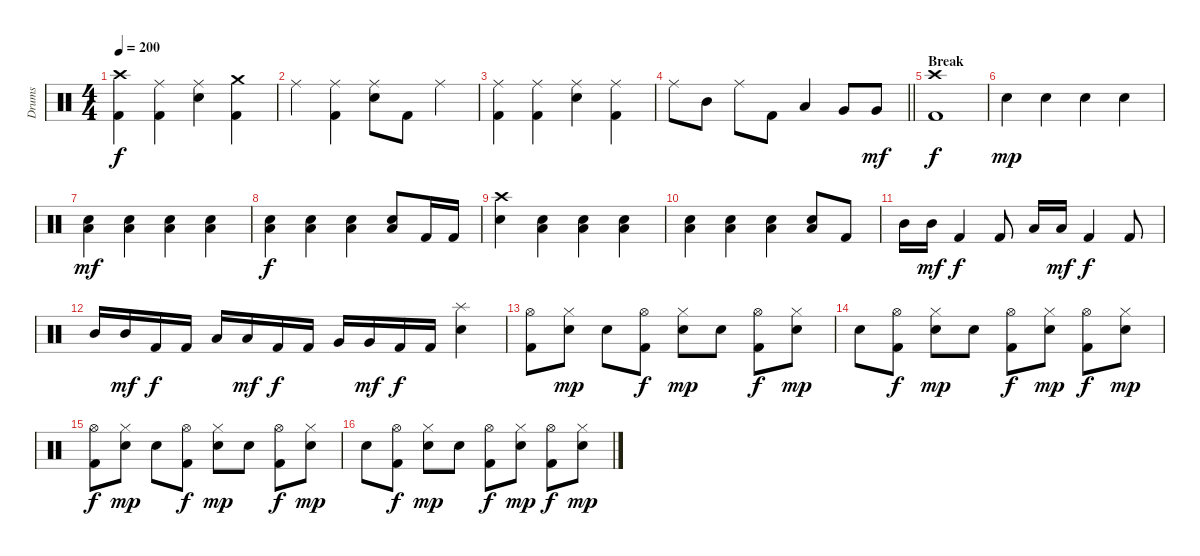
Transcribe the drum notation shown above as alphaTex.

\track ("Drums" "Drums") {instrument percussion}
\staff {score}
\articulation defaults
\ts (4 4)
\tempo 200
\clef neutral
\ks c
("Kick (hit) 2" "Crash high (hit)").4{dy f} ("Kick (hit) 2" "Ride (middle)").4 ("Ride (middle)" "Electric Snare (hit)").4 ("Kick (hit) 2" "Crash medium (hit)").4 |
"Ride (middle)".4 ("Kick (hit) 2" "Ride (middle)").4 ("Ride (middle)" "Electric Snare (hit)").8 "Kick (hit) 2".8 "Ride (middle)".4 |
("Kick (hit) 2" "Ride (middle)").4 ("Kick (hit) 2" "Ride (middle)").4 ("Ride (middle)" "Electric Snare (hit)").4 ("Kick (hit) 2" "Ride (middle)").4 |
\barLineRight lightlight "Ride (middle)".8 "Mid Tom (hit)".8 "Ride (middle)".8 "Kick (hit) 2".8 "Low Tom (hit)".4 "Very Low Tom (hit)".8 "Very Low Tom (hit)".8{dy mf}
|
\section ("" "Break")
("Kick (hit) 2" "Crash high (hit)").1{dy f} |
"Electric Snare (hit)".4{dy mp} "Electric Snare (hit)".4 "Electric Snare (hit)".4 "Electric Snare (hit)".4 |
("Low Floor Tom (hit)" "Electric Snare (hit)").4{dy mf} ("Low Floor Tom (hit)" "Electric Snare (hit)").4 ("Low Floor Tom (hit)" "Electric Snare (hit)").4 ("Low Floor Tom (hit)" "Electric Snare (hit)").4 |
("Low Floor Tom (hit)" "Electric Snare (hit)").4{dy f} ("Low Floor Tom (hit)" "Electric Snare (hit)").4 ("Low Floor Tom (hit)" "Electric Snare (hit)").4 ("Low Floor Tom (hit)" "Electric Snare (hit)").8 "Kick (hit) 2".16 "Kick (hit) 2".16 |
("Crash high (hit)" "Electric Snare (hit)").4 ("Low Floor Tom (hit)" "Electric Snare (hit)").4 ("Low Floor Tom (hit)" "Electric Snare (hit)").4 ("Low Floor Tom (hit)" "Electric Snare (hit)").4 |
("Low Floor Tom (hit)" "Electric Snare (hit)").4 ("Low Floor Tom (hit)" "Electric Snare (hit)").4 ("Low Floor Tom (hit)" "Electric Snare (hit)").4 ("Low Floor Tom (hit)" "Electric Snare (hit)").8 "Kick (hit) 2".8 |
"Mid Tom (hit)".16 "Mid Tom (hit)".16{dy mf} "Kick (hit) 2".4{dy f} "Kick (hit) 2".8 "Low Tom (hit)".16 "Low Tom (hit)".16{dy mf} "Kick (hit) 2".4{dy f} "Kick (hit) 2".8 |
"Mid Tom (hit)".16 "Mid Tom (hit)".16{dy mf} "Kick (hit) 2".16{dy f} "Kick (hit) 2".16 "Low Tom (hit)".16 "Low Tom (hit)".16{dy mf} "Kick (hit) 2".16{dy f} "Kick (hit) 2".16 "Very Low Tom (hit)".16 "Very Low Tom (hit)".16{dy mf} "Kick (hit) 2".16{dy f} "Kick (hit) 2".16 ("Splash (hit)" "Electric Snare (hit)").4 |
("Kick (hit) 2" "Hi-Hat (open)").8 ("Hi-Hat (closed)" "Electric Snare (hit)").8{dy mp} "Electric Snare (hit)".8 ("Kick (hit) 2" "Hi-Hat (open)").8{dy f} ("Hi-Hat (closed)" "Electric Snare (hit)").8{dy mp} "Electric Snare (hit)".8 ("Kick (hit) 2" "Hi-Hat (open)").8{dy f} ("Hi-Hat (closed)" "Electric Snare (hit)").8{dy mp} |
"Electric Snare (hit)".8 ("Kick (hit) 2" "Hi-Hat (open)").8{dy f} ("Hi-Hat (closed)" "Electric Snare (hit)").8{dy mp} "Electric Snare (hit)".8 ("Kick (hit) 2" "Hi-Hat (open)").8{dy f} ("Hi-Hat (closed)" "Electric Snare (hit)").8{dy mp} ("Kick (hit) 2" "Hi-Hat (open)").8{dy f} ("Hi-Hat (closed)" "Electric Snare (hit)").8{dy mp} |
("Kick (hit) 2" "Hi-Hat (open)").8{dy f} ("Hi-Hat (closed)" "Electric Snare (hit)").8{dy mp} "Electric Snare (hit)".8 ("Kick (hit) 2" "Hi-Hat (open)").8{dy f} ("Hi-Hat (closed)" "Electric Snare (hit)").8{dy mp} "Electric Snare (hit)".8 ("Kick (hit) 2" "Hi-Hat (open)").8{dy f} ("Hi-Hat (closed)" "Electric Snare (hit)").8{dy mp} |
"Electric Snare (hit)".8 ("Kick (hit) 2" "Hi-Hat (open)").8{dy f} ("Hi-Hat (closed)" "Electric Snare (hit)").8{dy mp} "Electric Snare (hit)".8 ("Kick (hit) 2" "Hi-Hat (open)").8{dy f} ("Hi-Hat (closed)" "Electric Snare (hit)").8{dy mp} ("Kick (hit) 2" "Hi-Hat (open)").8{dy f} ("Hi-Hat (closed)" "Electric Snare (hit)").8{dy mp}
